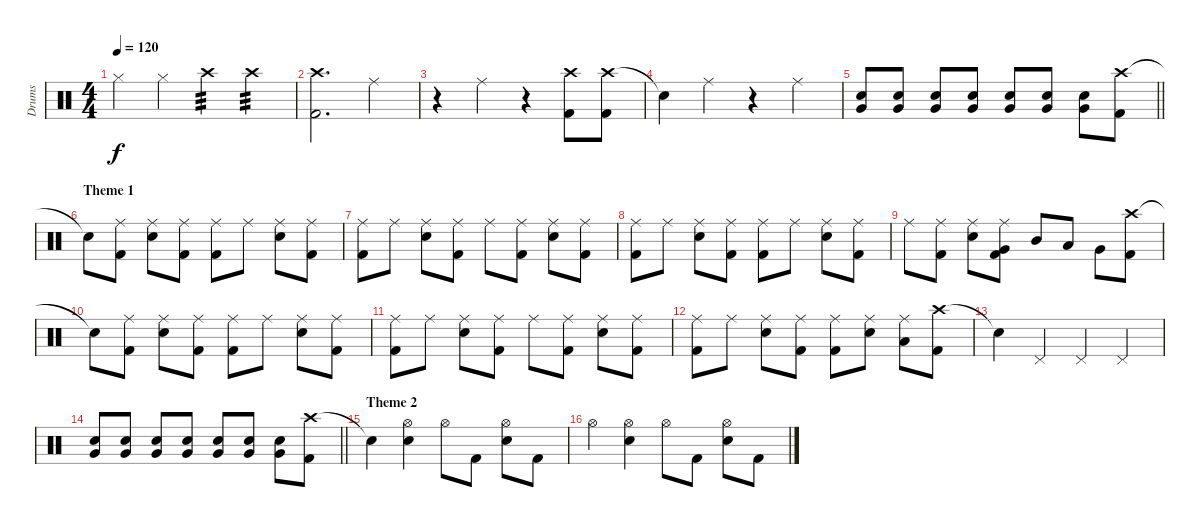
\track ("Drums" "Drums") {instrument percussion}
\staff {score}
\articulation defaults
\ts (4 4)
\tempo 120
\clef neutral
\ks c "Hi-Hat (closed)".4{dy f} "Hi-Hat (closed)".4 "Crash high (hit)".4{tp 3} "Crash high (hit)".4{tp 3}
|
("Crash high (hit)" "Kick (hit) 2").2{d} "Ride (middle)".4 |
r.4 "Ride (middle)".4 r.4 ("Crash high (hit)" "Kick (hit) 2").8 ("Crash high (hit)" "Kick (hit) 2").8 |
"Snare (hit)"{t}.4 "Ride (middle)".4 r.4 "Ride (middle)".4 |
\barLineRight lightlight
("Snare (hit) 2" "Very Low Tom (hit)").8 ("Snare (hit) 2" "Very Low Tom (hit)").8 ("Snare (hit) 2" "Very Low Tom (hit)").8 ("Snare (hit) 2" "Very Low Tom (hit)").8 ("Snare (hit) 2" "Very Low Tom (hit)").8 ("Snare (hit) 2" "Very Low Tom (hit)").8 ("Snare (hit) 2" "Very Low Tom (hit)").8 ("Crash high (hit)" "Kick (hit) 2").8 |
\section ("" "Theme 1")
"Snare (hit)"{t}.8 ("Ride (middle)" "Kick (hit) 2").8 ("Ride (middle)" "Snare (hit) 2").8 ("Ride (middle)" "Kick (hit) 2").8 ("Ride (middle)" "Kick (hit) 2").8 "Ride (middle)".8 ("Ride (middle)" "Snare (hit) 2").8 ("Ride (middle)" "Kick (hit) 2").8 |
("Ride (middle)" "Kick (hit) 2").8 "Ride (middle)".8 ("Ride (middle)" "Snare (hit) 2").8 ("Ride (middle)" "Kick (hit) 2").8 "Ride (middle)".8 ("Ride (middle)" "Kick (hit) 2").8 ("Ride (middle)" "Snare (hit) 2").8 ("Ride (middle)" "Kick (hit) 2").8 |
("Ride (middle)" "Kick (hit) 2").8 "Ride (middle)".8 ("Ride (middle)" "Snare (hit) 2").8 ("Ride (middle)" "Kick (hit) 2").8 ("Ride (middle)" "Kick (hit) 2").8 "Ride (middle)".8 ("Ride (middle)" "Snare (hit) 2").8 ("Ride (middle)" "Kick (hit) 2").8 |
"Ride (middle)".8 ("Ride (middle)" "Kick (hit) 2").8 ("Ride (middle)" "Snare (hit) 2").8 ("Ride (middle)" "Very Low Tom (hit)" "Kick (hit) 2").8 "Mid Tom (hit)".8 "Low Tom (hit)".8 "Very Low Tom (hit)".8 ("Crash high (hit)" "Kick (hit) 2").8 |
"Snare (hit)"{t}.8 ("Ride (middle)" "Kick (hit) 2").8 ("Ride (middle)" "Snare (hit) 2").8 ("Ride (middle)" "Kick (hit) 2").8 ("Ride (middle)" "Kick (hit) 2").8 "Ride (middle)".8 ("Ride (middle)" "Snare (hit) 2").8 ("Ride (middle)" "Kick (hit) 2").8 |
("Ride (middle)" "Kick (hit) 2").8 "Ride (middle)".8 ("Ride (middle)" "Snare (hit) 2").8 ("Ride (middle)" "Kick (hit) 2").8 "Ride (middle)".8 ("Ride (middle)" "Kick (hit) 2").8 ("Ride (middle)" "Snare (hit) 2").8 ("Ride (middle)" "Kick (hit) 2").8 |
("Ride (middle)" "Kick (hit) 2").8 "Ride (middle)".8 ("Ride (middle)" "Snare (hit) 2").8 ("Ride (middle)" "Kick (hit) 2").8 ("Ride (middle)" "Kick (hit) 2").8 ("Ride (middle)" "Snare (hit) 2").8 ("Ride (middle)" "Low Tom (hit)").8 ("Crash high (hit)" "Kick (hit) 2").8 |
"Snare (hit)"{t}.4 "Pedal Hi-Hat (hit)".4 "Pedal Hi-Hat (hit)".4 "Pedal Hi-Hat (hit)".4 |
\barLineRight lightlight
("Snare (hit) 2" "Very Low Tom (hit)").8 ("Snare (hit) 2" "Very Low Tom (hit)").8 ("Snare (hit) 2" "Very Low Tom (hit)").8 ("Snare (hit) 2" "Very Low Tom (hit)").8 ("Snare (hit) 2" "Very Low Tom (hit)").8 ("Snare (hit) 2" "Very Low Tom (hit)").8 ("Snare (hit) 2" "Very Low Tom (hit)").8 ("Crash high (hit)" "Kick (hit) 2").8 |
\section ("" "Theme 2")
"Snare (hit)"{t}.4 ("Hi-Hat (open)" "Snare (hit) 2").4 "Hi-Hat (open)".8 "Kick (hit) 2".8 ("Hi-Hat (open)" "Snare (hit) 2").8 "Kick (hit) 2".8 |
"Hi-Hat (open)".4 ("Hi-Hat (open)" "Snare (hit) 2").4 "Hi-Hat (open)".8 "Kick (hit) 2".8 ("Hi-Hat (open)" "Snare (hit) 2").8 "Kick (hit) 2".8
